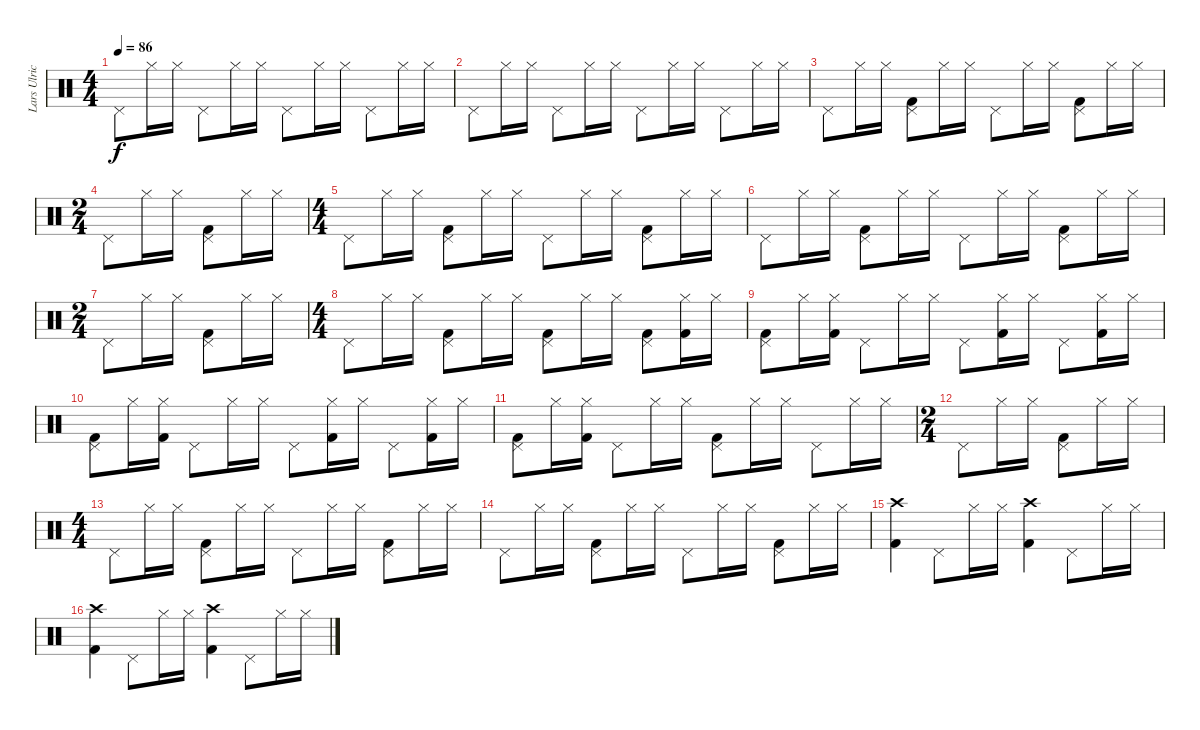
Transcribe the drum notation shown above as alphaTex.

\track ("Lars Ulrich" "Lars Ulric") {instrument percussion}
\staff {score}
\articulation defaults
\ts (4 4)
\tempo 86
\clef neutral
\ks c "Pedal Hi-Hat (hit)".8{dy f} "Hi-Hat (closed)".16 "Hi-Hat (closed)".16 "Pedal Hi-Hat (hit)".8 "Hi-Hat (closed)".16 "Hi-Hat (closed)".16 "Pedal Hi-Hat (hit)".8 "Hi-Hat (closed)".16 "Hi-Hat (closed)".16 "Pedal Hi-Hat (hit)".8 "Hi-Hat (closed)".16 "Hi-Hat (closed)".16
|
"Pedal Hi-Hat (hit)".8 "Hi-Hat (closed)".16 "Hi-Hat (closed)".16 "Pedal Hi-Hat (hit)".8 "Hi-Hat (closed)".16 "Hi-Hat (closed)".16 "Pedal Hi-Hat (hit)".8 "Hi-Hat (closed)".16 "Hi-Hat (closed)".16 "Pedal Hi-Hat (hit)".8 "Hi-Hat (closed)".16 "Hi-Hat (closed)".16 |
"Pedal Hi-Hat (hit)".8 "Hi-Hat (closed)".16 "Hi-Hat (closed)".16 ("Pedal Hi-Hat (hit)" "Kick (hit) 2").8 "Hi-Hat (closed)".16 "Hi-Hat (closed)".16 "Pedal Hi-Hat (hit)".8 "Hi-Hat (closed)".16 "Hi-Hat (closed)".16 ("Pedal Hi-Hat (hit)" "Kick (hit) 2").8 "Hi-Hat (closed)".16 "Hi-Hat (closed)".16 |
\ts (2 4)
"Pedal Hi-Hat (hit)".8 "Hi-Hat (closed)".16 "Hi-Hat (closed)".16 ("Pedal Hi-Hat (hit)" "Kick (hit) 2").8 "Hi-Hat (closed)".16 "Hi-Hat (closed)".16 |
\ts (4 4)
"Pedal Hi-Hat (hit)".8 "Hi-Hat (closed)".16 "Hi-Hat (closed)".16 ("Pedal Hi-Hat (hit)" "Kick (hit) 2").8 "Hi-Hat (closed)".16 "Hi-Hat (closed)".16 "Pedal Hi-Hat (hit)".8 "Hi-Hat (closed)".16 "Hi-Hat (closed)".16 ("Pedal Hi-Hat (hit)" "Kick (hit) 2").8 "Hi-Hat (closed)".16 "Hi-Hat (closed)".16 |
"Pedal Hi-Hat (hit)".8 "Hi-Hat (closed)".16 "Hi-Hat (closed)".16 ("Pedal Hi-Hat (hit)" "Kick (hit) 2").8 "Hi-Hat (closed)".16 "Hi-Hat (closed)".16 "Pedal Hi-Hat (hit)".8 "Hi-Hat (closed)".16 "Hi-Hat (closed)".16 ("Pedal Hi-Hat (hit)" "Kick (hit) 2").8 "Hi-Hat (closed)".16 "Hi-Hat (closed)".16 |
\ts (2 4)
"Pedal Hi-Hat (hit)".8 "Hi-Hat (closed)".16 "Hi-Hat (closed)".16 ("Pedal Hi-Hat (hit)" "Kick (hit) 2").8 "Hi-Hat (closed)".16 "Hi-Hat (closed)".16 |
\ts (4 4)
"Pedal Hi-Hat (hit)".8 "Hi-Hat (closed)".16 "Hi-Hat (closed)".16 ("Pedal Hi-Hat (hit)" "Kick (hit) 2").8 "Hi-Hat (closed)".16 "Hi-Hat (closed)".16 ("Pedal Hi-Hat (hit)" "Kick (hit) 2").8 "Hi-Hat (closed)".16 "Hi-Hat (closed)".16 ("Pedal Hi-Hat (hit)" "Kick (hit) 2").8 ("Hi-Hat (closed)" "Kick (hit) 2").16 "Hi-Hat (closed)".16 |
("Pedal Hi-Hat (hit)" "Kick (hit) 2").8 "Hi-Hat (closed)".16 ("Hi-Hat (closed)" "Kick (hit) 2").16 "Pedal Hi-Hat (hit)".8 "Hi-Hat (closed)".16 "Hi-Hat (closed)".16 "Pedal Hi-Hat (hit)".8 ("Hi-Hat (closed)" "Kick (hit) 2").16 "Hi-Hat (closed)".16 "Pedal Hi-Hat (hit)".8 ("Hi-Hat (closed)" "Kick (hit) 2").16 "Hi-Hat (closed)".16 |
("Pedal Hi-Hat (hit)" "Kick (hit) 2").8 "Hi-Hat (closed)".16 ("Hi-Hat (closed)" "Kick (hit) 2").16 "Pedal Hi-Hat (hit)".8 "Hi-Hat (closed)".16 "Hi-Hat (closed)".16 "Pedal Hi-Hat (hit)".8 ("Hi-Hat (closed)" "Kick (hit) 2").16 "Hi-Hat (closed)".16 "Pedal Hi-Hat (hit)".8 ("Hi-Hat (closed)" "Kick (hit) 2").16 "Hi-Hat (closed)".16 |
("Pedal Hi-Hat (hit)" "Kick (hit) 2").8 "Hi-Hat (closed)".16 ("Hi-Hat (closed)" "Kick (hit) 2").16 "Pedal Hi-Hat (hit)".8 "Hi-Hat (closed)".16 "Hi-Hat (closed)".16 ("Pedal Hi-Hat (hit)" "Kick (hit) 2").8 "Hi-Hat (closed)".16 "Hi-Hat (closed)".16 "Pedal Hi-Hat (hit)".8 "Hi-Hat (closed)".16 "Hi-Hat (closed)".16 |
\ts (2 4)
"Pedal Hi-Hat (hit)".8 "Hi-Hat (closed)".16 "Hi-Hat (closed)".16 ("Pedal Hi-Hat (hit)" "Kick (hit) 2").8 "Hi-Hat (closed)".16 "Hi-Hat (closed)".16 |
\ts (4 4)
"Pedal Hi-Hat (hit)".8 "Hi-Hat (closed)".16 "Hi-Hat (closed)".16 ("Pedal Hi-Hat (hit)" "Kick (hit) 2").8 "Hi-Hat (closed)".16 "Hi-Hat (closed)".16 "Pedal Hi-Hat (hit)".8 "Hi-Hat (closed)".16 "Hi-Hat (closed)".16 ("Pedal Hi-Hat (hit)" "Kick (hit) 2").8 "Hi-Hat (closed)".16 "Hi-Hat (closed)".16 |
"Pedal Hi-Hat (hit)".8 "Hi-Hat (closed)".16 "Hi-Hat (closed)".16 ("Pedal Hi-Hat (hit)" "Kick (hit) 2").8 "Hi-Hat (closed)".16 "Hi-Hat (closed)".16 "Pedal Hi-Hat (hit)".8 "Hi-Hat (closed)".16 "Hi-Hat (closed)".16 ("Pedal Hi-Hat (hit)" "Kick (hit) 2").8 "Hi-Hat (closed)".16 "Hi-Hat (closed)".16 |
("Crash high (hit)" "Kick (hit) 2").4 "Pedal Hi-Hat (hit)".8 "Hi-Hat (closed)".16 "Hi-Hat (closed)".16 ("Crash high (hit)" "Kick (hit) 2").4 "Pedal Hi-Hat (hit)".8 "Hi-Hat (closed)".16 "Hi-Hat (closed)".16 |
("Crash high (hit)" "Kick (hit) 2").4 "Pedal Hi-Hat (hit)".8 "Hi-Hat (closed)".16 "Hi-Hat (closed)".16 ("Crash high (hit)" "Kick (hit) 2").4 "Pedal Hi-Hat (hit)".8 "Hi-Hat (closed)".16 "Hi-Hat (closed)".16
